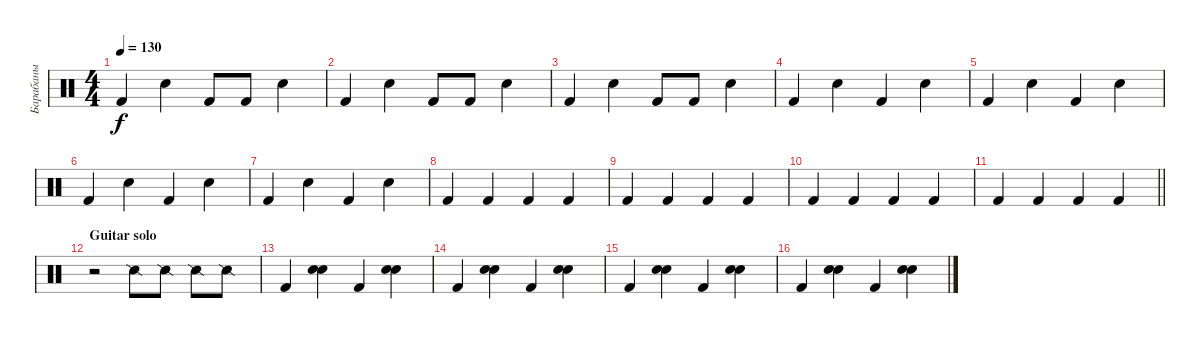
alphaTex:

\track ("Барабаны" "Барабаны") {instrument percussion}
\staff {score}
\articulation defaults
\ts (4 4)
\tempo 130
\clef neutral
\ks c "Kick (hit) 2".4{dy f} "Snare (hit) 2".4 "Kick (hit) 2".8 "Kick (hit) 2".8 "Snare (hit) 2".4
|
"Kick (hit) 2".4 "Snare (hit) 2".4 "Kick (hit) 2".8 "Kick (hit) 2".8 "Snare (hit) 2".4 |
"Kick (hit) 2".4 "Snare (hit) 2".4 "Kick (hit) 2".8 "Kick (hit) 2".8 "Snare (hit) 2".4 |
"Kick (hit) 2".4 "Snare (hit) 2".4 "Kick (hit) 2".4 "Snare (hit) 2".4 |
"Kick (hit) 2".4 "Snare (hit) 2".4 "Kick (hit) 2".4 "Snare (hit) 2".4 |
"Kick (hit) 2".4 "Snare (hit) 2".4 "Kick (hit) 2".4 "Snare (hit) 2".4 |
"Kick (hit) 2".4 "Snare (hit) 2".4 "Kick (hit) 2".4 "Snare (hit) 2".4 |
"Kick (hit) 2".4 "Kick (hit) 2".4 "Kick (hit) 2".4 "Kick (hit) 2".4 |
"Kick (hit) 2".4 "Kick (hit) 2".4 "Kick (hit) 2".4 "Kick (hit) 2".4 |
"Kick (hit) 2".4 "Kick (hit) 2".4 "Kick (hit) 2".4 "Kick (hit) 2".4 |
\barLineRight lightlight "Kick (hit) 2".4 "Kick (hit) 2".4 "Kick (hit) 2".4 "Kick (hit) 2".4
|
\section ("" "Guitar solo")
r.2 "Snare (side stick) 2".8 "Snare (side stick) 2".8 "Snare (side stick) 2".8 "Snare (side stick) 2".8 |
"Kick (hit) 2".4 ("Snare (hit) 2" "Electric Snare (hit)").4 "Kick (hit) 2".4 ("Snare (hit) 2" "Electric Snare (hit)").4 |
"Kick (hit) 2".4 ("Snare (hit) 2" "Electric Snare (hit)").4 "Kick (hit) 2".4 ("Snare (hit) 2" "Electric Snare (hit)").4 |
"Kick (hit) 2".4 ("Snare (hit) 2" "Electric Snare (hit)").4 "Kick (hit) 2".4 ("Snare (hit) 2" "Electric Snare (hit)").4 |
"Kick (hit) 2".4 ("Snare (hit) 2" "Electric Snare (hit)").4 "Kick (hit) 2".4 ("Snare (hit) 2" "Electric Snare (hit)").4
